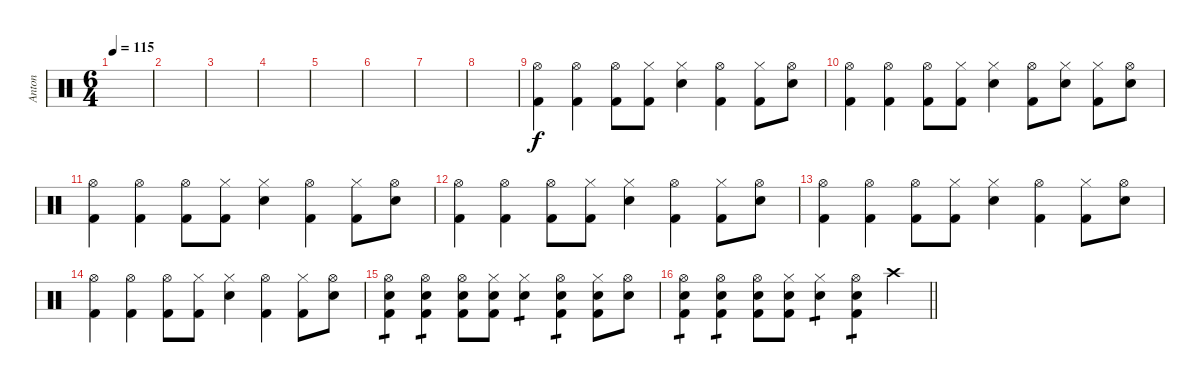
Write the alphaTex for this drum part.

\track ("Anton" "Anton") {instrument percussion}
\staff {score}
\articulation defaults
\ts (6 4)
\tempo 115
\clef neutral
\ks c
|
|
|
|
|
|
|
|
("Hi-Hat (open)" "Kick (hit) 2").4{dy f} ("Hi-Hat (open)" "Kick (hit) 2").4 ("Hi-Hat (open)" "Kick (hit) 2").8 ("Hi-Hat (closed)" "Kick (hit) 2").8 ("Hi-Hat (closed)" "Electric Snare (hit)").4 ("Hi-Hat (open)" "Kick (hit) 2").4 ("Hi-Hat (closed)" "Kick (hit) 2").8 ("Hi-Hat (open)" "Electric Snare (hit)").8 |
("Hi-Hat (open)" "Kick (hit) 2").4 ("Hi-Hat (open)" "Kick (hit) 2").4 ("Hi-Hat (open)" "Kick (hit) 2").8 ("Hi-Hat (closed)" "Kick (hit) 2").8 ("Hi-Hat (closed)" "Electric Snare (hit)").4 ("Hi-Hat (open)" "Kick (hit) 2").8 ("Hi-Hat (closed)" "Electric Snare (hit)").8 ("Hi-Hat (closed)" "Kick (hit) 2").8 ("Hi-Hat (open)" "Electric Snare (hit)").8 |
("Hi-Hat (open)" "Kick (hit) 2").4 ("Hi-Hat (open)" "Kick (hit) 2").4 ("Hi-Hat (open)" "Kick (hit) 2").8 ("Hi-Hat (closed)" "Kick (hit) 2").8 ("Hi-Hat (closed)" "Electric Snare (hit)").4 ("Hi-Hat (open)" "Kick (hit) 2").4 ("Hi-Hat (closed)" "Kick (hit) 2").8 ("Hi-Hat (open)" "Electric Snare (hit)").8 |
("Hi-Hat (open)" "Kick (hit) 2").4 ("Hi-Hat (open)" "Kick (hit) 2").4 ("Hi-Hat (open)" "Kick (hit) 2").8 ("Hi-Hat (closed)" "Kick (hit) 2").8 ("Hi-Hat (closed)" "Electric Snare (hit)").4 ("Hi-Hat (open)" "Kick (hit) 2").4 ("Hi-Hat (closed)" "Kick (hit) 2").8 ("Hi-Hat (open)" "Electric Snare (hit)").8 |
("Hi-Hat (open)" "Kick (hit) 2").4 ("Hi-Hat (open)" "Kick (hit) 2").4 ("Hi-Hat (open)" "Kick (hit) 2").8 ("Hi-Hat (closed)" "Kick (hit) 2").8 ("Hi-Hat (closed)" "Electric Snare (hit)").4 ("Hi-Hat (open)" "Kick (hit) 2").4 ("Hi-Hat (closed)" "Kick (hit) 2").8 ("Hi-Hat (open)" "Electric Snare (hit)").8 |
("Hi-Hat (open)" "Kick (hit) 2").4 ("Hi-Hat (open)" "Kick (hit) 2").4 ("Hi-Hat (open)" "Kick (hit) 2").8 ("Hi-Hat (closed)" "Kick (hit) 2").8 ("Hi-Hat (closed)" "Electric Snare (hit)").4 ("Hi-Hat (open)" "Kick (hit) 2").4 ("Hi-Hat (closed)" "Kick (hit) 2").8 ("Hi-Hat (open)" "Electric Snare (hit)").8 |
("Hi-Hat (open)" "Electric Snare (hit)" "Kick (hit) 2").4{tp 1} ("Hi-Hat (open)" "Electric Snare (hit)" "Kick (hit) 2").4{tp 1} ("Hi-Hat (open)" "Electric Snare (hit)" "Kick (hit) 2").8 ("Hi-Hat (closed)" "Electric Snare (hit)" "Kick (hit) 2").8 ("Hi-Hat (closed)" "Electric Snare (hit)").4{tp 1} ("Hi-Hat (open)" "Electric Snare (hit)" "Kick (hit) 2").4{tp 1} ("Hi-Hat (closed)" "Electric Snare (hit)" "Kick (hit) 2").8 ("Hi-Hat (open)" "Electric Snare (hit)").8 |
\barLineRight lightlight
("Hi-Hat (open)" "Electric Snare (hit)" "Kick (hit) 2").4{tp 1} ("Hi-Hat (open)" "Electric Snare (hit)" "Kick (hit) 2").4{tp 1} ("Hi-Hat (open)" "Electric Snare (hit)" "Kick (hit) 2").8 ("Hi-Hat (closed)" "Electric Snare (hit)" "Kick (hit) 2").8 ("Hi-Hat (closed)" "Electric Snare (hit)").4{tp 1} ("Hi-Hat (open)" "Electric Snare (hit)" "Kick (hit) 2").4{tp 1} "Crash high (hit)".4
